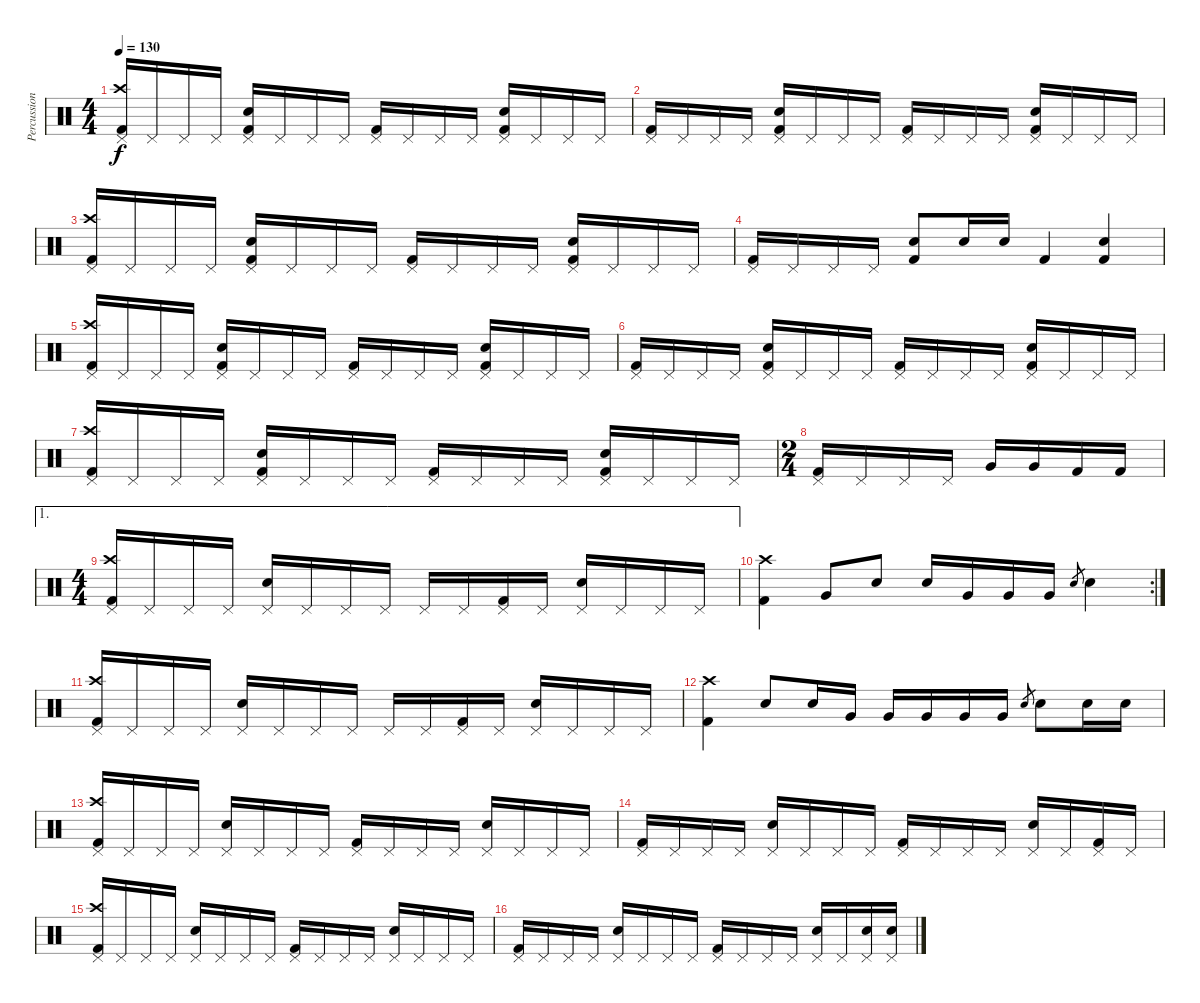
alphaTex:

\track ("Percussion" "Percussion") {instrument percussion}
\staff {score}
\articulation defaults
\ts (4 4)
\tempo 130
\clef neutral
\ks c
("Pedal Hi-Hat (hit)" "Crash high (hit)" "Kick (hit) 2").16{dy f} "Pedal Hi-Hat (hit)".16 "Pedal Hi-Hat (hit)".16 "Pedal Hi-Hat (hit)".16 ("Pedal Hi-Hat (hit)" "Snare (hit) 2" "Kick (hit) 2").16 "Pedal Hi-Hat (hit)".16 "Pedal Hi-Hat (hit)".16 "Pedal Hi-Hat (hit)".16 ("Pedal Hi-Hat (hit)" "Kick (hit) 2").16 "Pedal Hi-Hat (hit)".16 "Pedal Hi-Hat (hit)".16 "Pedal Hi-Hat (hit)".16 ("Pedal Hi-Hat (hit)" "Snare (hit) 2" "Kick (hit) 2").16 "Pedal Hi-Hat (hit)".16 "Pedal Hi-Hat (hit)".16 "Pedal Hi-Hat (hit)".16 |
("Pedal Hi-Hat (hit)" "Kick (hit) 2").16 "Pedal Hi-Hat (hit)".16 "Pedal Hi-Hat (hit)".16 "Pedal Hi-Hat (hit)".16 ("Pedal Hi-Hat (hit)" "Snare (hit) 2" "Kick (hit) 2").16 "Pedal Hi-Hat (hit)".16 "Pedal Hi-Hat (hit)".16 "Pedal Hi-Hat (hit)".16 ("Pedal Hi-Hat (hit)" "Kick (hit) 2").16 "Pedal Hi-Hat (hit)".16 "Pedal Hi-Hat (hit)".16 "Pedal Hi-Hat (hit)".16 ("Pedal Hi-Hat (hit)" "Snare (hit) 2" "Kick (hit) 2").16 "Pedal Hi-Hat (hit)".16 "Pedal Hi-Hat (hit)".16 "Pedal Hi-Hat (hit)".16 |
("Pedal Hi-Hat (hit)" "Crash high (hit)" "Kick (hit) 2").16 "Pedal Hi-Hat (hit)".16 "Pedal Hi-Hat (hit)".16 "Pedal Hi-Hat (hit)".16 ("Pedal Hi-Hat (hit)" "Snare (hit) 2" "Kick (hit) 2").16 "Pedal Hi-Hat (hit)".16 "Pedal Hi-Hat (hit)".16 "Pedal Hi-Hat (hit)".16 ("Pedal Hi-Hat (hit)" "Kick (hit) 2").16 "Pedal Hi-Hat (hit)".16 "Pedal Hi-Hat (hit)".16 "Pedal Hi-Hat (hit)".16 ("Pedal Hi-Hat (hit)" "Snare (hit) 2" "Kick (hit) 2").16 "Pedal Hi-Hat (hit)".16 "Pedal Hi-Hat (hit)".16 "Pedal Hi-Hat (hit)".16 |
("Pedal Hi-Hat (hit)" "Kick (hit) 2").16 "Pedal Hi-Hat (hit)".16 "Pedal Hi-Hat (hit)".16 "Pedal Hi-Hat (hit)".16 ("Snare (hit) 2" "Kick (hit) 2").8 "Snare (hit) 2".16 "Snare (hit) 2".16 "Kick (hit) 2".4 ("Snare (hit) 2" "Kick (hit) 2").4 |
("Pedal Hi-Hat (hit)" "Crash high (hit)" "Kick (hit) 2").16 "Pedal Hi-Hat (hit)".16 "Pedal Hi-Hat (hit)".16 "Pedal Hi-Hat (hit)".16 ("Pedal Hi-Hat (hit)" "Snare (hit) 2" "Kick (hit) 2").16 "Pedal Hi-Hat (hit)".16 "Pedal Hi-Hat (hit)".16 "Pedal Hi-Hat (hit)".16 ("Pedal Hi-Hat (hit)" "Kick (hit) 2").16 "Pedal Hi-Hat (hit)".16 "Pedal Hi-Hat (hit)".16 "Pedal Hi-Hat (hit)".16 ("Pedal Hi-Hat (hit)" "Snare (hit) 2" "Kick (hit) 2").16 "Pedal Hi-Hat (hit)".16 "Pedal Hi-Hat (hit)".16 "Pedal Hi-Hat (hit)".16 |
("Pedal Hi-Hat (hit)" "Kick (hit) 2").16 "Pedal Hi-Hat (hit)".16 "Pedal Hi-Hat (hit)".16 "Pedal Hi-Hat (hit)".16 ("Pedal Hi-Hat (hit)" "Snare (hit) 2" "Kick (hit) 2").16 "Pedal Hi-Hat (hit)".16 "Pedal Hi-Hat (hit)".16 "Pedal Hi-Hat (hit)".16 ("Pedal Hi-Hat (hit)" "Kick (hit) 2").16 "Pedal Hi-Hat (hit)".16 "Pedal Hi-Hat (hit)".16 "Pedal Hi-Hat (hit)".16 ("Pedal Hi-Hat (hit)" "Snare (hit) 2" "Kick (hit) 2").16 "Pedal Hi-Hat (hit)".16 "Pedal Hi-Hat (hit)".16 "Pedal Hi-Hat (hit)".16 |
("Pedal Hi-Hat (hit)" "Crash high (hit)" "Kick (hit) 2").16 "Pedal Hi-Hat (hit)".16 "Pedal Hi-Hat (hit)".16 "Pedal Hi-Hat (hit)".16 ("Pedal Hi-Hat (hit)" "Snare (hit) 2" "Kick (hit) 2").16 "Pedal Hi-Hat (hit)".16 "Pedal Hi-Hat (hit)".16 "Pedal Hi-Hat (hit)".16 ("Pedal Hi-Hat (hit)" "Kick (hit) 2").16 "Pedal Hi-Hat (hit)".16 "Pedal Hi-Hat (hit)".16 "Pedal Hi-Hat (hit)".16 ("Pedal Hi-Hat (hit)" "Snare (hit) 2" "Kick (hit) 2").16 "Pedal Hi-Hat (hit)".16 "Pedal Hi-Hat (hit)".16 "Pedal Hi-Hat (hit)".16 |
\ts (2 4)
("Pedal Hi-Hat (hit)" "Kick (hit) 2").16 "Pedal Hi-Hat (hit)".16 "Pedal Hi-Hat (hit)".16 "Pedal Hi-Hat (hit)".16 "Very Low Tom (hit)".16 "Very Low Tom (hit)".16 "Kick (hit) 2".16 "Kick (hit) 2".16 |
\ae 1
\ts (4 4)
("Pedal Hi-Hat (hit)" "Crash high (hit)" "Kick (hit) 2").16 "Pedal Hi-Hat (hit)".16 "Pedal Hi-Hat (hit)".16 "Pedal Hi-Hat (hit)".16 ("Pedal Hi-Hat (hit)" "Snare (hit) 2").16 "Pedal Hi-Hat (hit)".16 "Pedal Hi-Hat (hit)".16 "Pedal Hi-Hat (hit)".16 "Pedal Hi-Hat (hit)".16 "Pedal Hi-Hat (hit)".16 ("Pedal Hi-Hat (hit)" "Kick (hit) 2").16 "Pedal Hi-Hat (hit)".16 ("Pedal Hi-Hat (hit)" "Snare (hit) 2").16 "Pedal Hi-Hat (hit)".16 "Pedal Hi-Hat (hit)".16 "Pedal Hi-Hat (hit)".16 |
\rc 2
("Crash high (hit)" "Kick (hit) 2").4 "Very Low Tom (hit)".8 "Snare (hit) 2".8 "Snare (hit) 2".16 "Very Low Tom (hit)".16 "Very Low Tom (hit)".16 "Very Low Tom (hit)".16 "Snare (hit) 2".8{gr} "Snare (hit) 2".4 |
("Pedal Hi-Hat (hit)" "Crash high (hit)" "Kick (hit) 2").16 "Pedal Hi-Hat (hit)".16 "Pedal Hi-Hat (hit)".16 "Pedal Hi-Hat (hit)".16 ("Pedal Hi-Hat (hit)" "Snare (hit) 2").16 "Pedal Hi-Hat (hit)".16 "Pedal Hi-Hat (hit)".16 "Pedal Hi-Hat (hit)".16 "Pedal Hi-Hat (hit)".16 "Pedal Hi-Hat (hit)".16 ("Pedal Hi-Hat (hit)" "Kick (hit) 2").16 "Pedal Hi-Hat (hit)".16 ("Pedal Hi-Hat (hit)" "Snare (hit) 2").16 "Pedal Hi-Hat (hit)".16 "Pedal Hi-Hat (hit)".16 "Pedal Hi-Hat (hit)".16 |
("Crash high (hit)" "Kick (hit) 2").4 "Snare (hit) 2".8 "Snare (hit) 2".16 "Very Low Tom (hit)".16 "Very Low Tom (hit)".16 "Very Low Tom (hit)".16 "Very Low Tom (hit)".16 "Very Low Tom (hit)".16 "Snare (hit) 2".8{gr} "Snare (hit) 2".8 "Snare (hit) 2".16 "Snare (hit) 2".16 |
("Pedal Hi-Hat (hit)" "Crash high (hit)" "Kick (hit) 2").16 "Pedal Hi-Hat (hit)".16 "Pedal Hi-Hat (hit)".16 "Pedal Hi-Hat (hit)".16 ("Pedal Hi-Hat (hit)" "Snare (hit) 2").16 "Pedal Hi-Hat (hit)".16 "Pedal Hi-Hat (hit)".16 "Pedal Hi-Hat (hit)".16 ("Pedal Hi-Hat (hit)" "Kick (hit) 2").16 "Pedal Hi-Hat (hit)".16 "Pedal Hi-Hat (hit)".16 "Pedal Hi-Hat (hit)".16 ("Pedal Hi-Hat (hit)" "Snare (hit) 2").16 "Pedal Hi-Hat (hit)".16 "Pedal Hi-Hat (hit)".16 "Pedal Hi-Hat (hit)".16 |
("Pedal Hi-Hat (hit)" "Kick (hit) 2").16 "Pedal Hi-Hat (hit)".16 "Pedal Hi-Hat (hit)".16 "Pedal Hi-Hat (hit)".16 ("Pedal Hi-Hat (hit)" "Snare (hit) 2").16 "Pedal Hi-Hat (hit)".16 "Pedal Hi-Hat (hit)".16 "Pedal Hi-Hat (hit)".16 ("Pedal Hi-Hat (hit)" "Kick (hit) 2").16 "Pedal Hi-Hat (hit)".16 "Pedal Hi-Hat (hit)".16 "Pedal Hi-Hat (hit)".16 ("Pedal Hi-Hat (hit)" "Snare (hit) 2").16 "Pedal Hi-Hat (hit)".16 ("Pedal Hi-Hat (hit)" "Kick (hit) 2").16 "Pedal Hi-Hat (hit)".16 |
("Pedal Hi-Hat (hit)" "Crash high (hit)" "Kick (hit) 2").16 "Pedal Hi-Hat (hit)".16 "Pedal Hi-Hat (hit)".16 "Pedal Hi-Hat (hit)".16 ("Pedal Hi-Hat (hit)" "Snare (hit) 2").16 "Pedal Hi-Hat (hit)".16 "Pedal Hi-Hat (hit)".16 "Pedal Hi-Hat (hit)".16 ("Pedal Hi-Hat (hit)" "Kick (hit) 2").16 "Pedal Hi-Hat (hit)".16 "Pedal Hi-Hat (hit)".16 "Pedal Hi-Hat (hit)".16 ("Pedal Hi-Hat (hit)" "Snare (hit) 2").16 "Pedal Hi-Hat (hit)".16 "Pedal Hi-Hat (hit)".16 "Pedal Hi-Hat (hit)".16 |
("Pedal Hi-Hat (hit)" "Kick (hit) 2").16 "Pedal Hi-Hat (hit)".16 "Pedal Hi-Hat (hit)".16 "Pedal Hi-Hat (hit)".16 ("Pedal Hi-Hat (hit)" "Snare (hit) 2").16 "Pedal Hi-Hat (hit)".16 "Pedal Hi-Hat (hit)".16 "Pedal Hi-Hat (hit)".16 ("Pedal Hi-Hat (hit)" "Kick (hit) 2").16 "Pedal Hi-Hat (hit)".16 "Pedal Hi-Hat (hit)".16 "Pedal Hi-Hat (hit)".16 ("Pedal Hi-Hat (hit)" "Snare (hit) 2").16 "Pedal Hi-Hat (hit)".16 ("Pedal Hi-Hat (hit)" "Snare (hit) 2").16 ("Pedal Hi-Hat (hit)" "Snare (hit) 2").16
